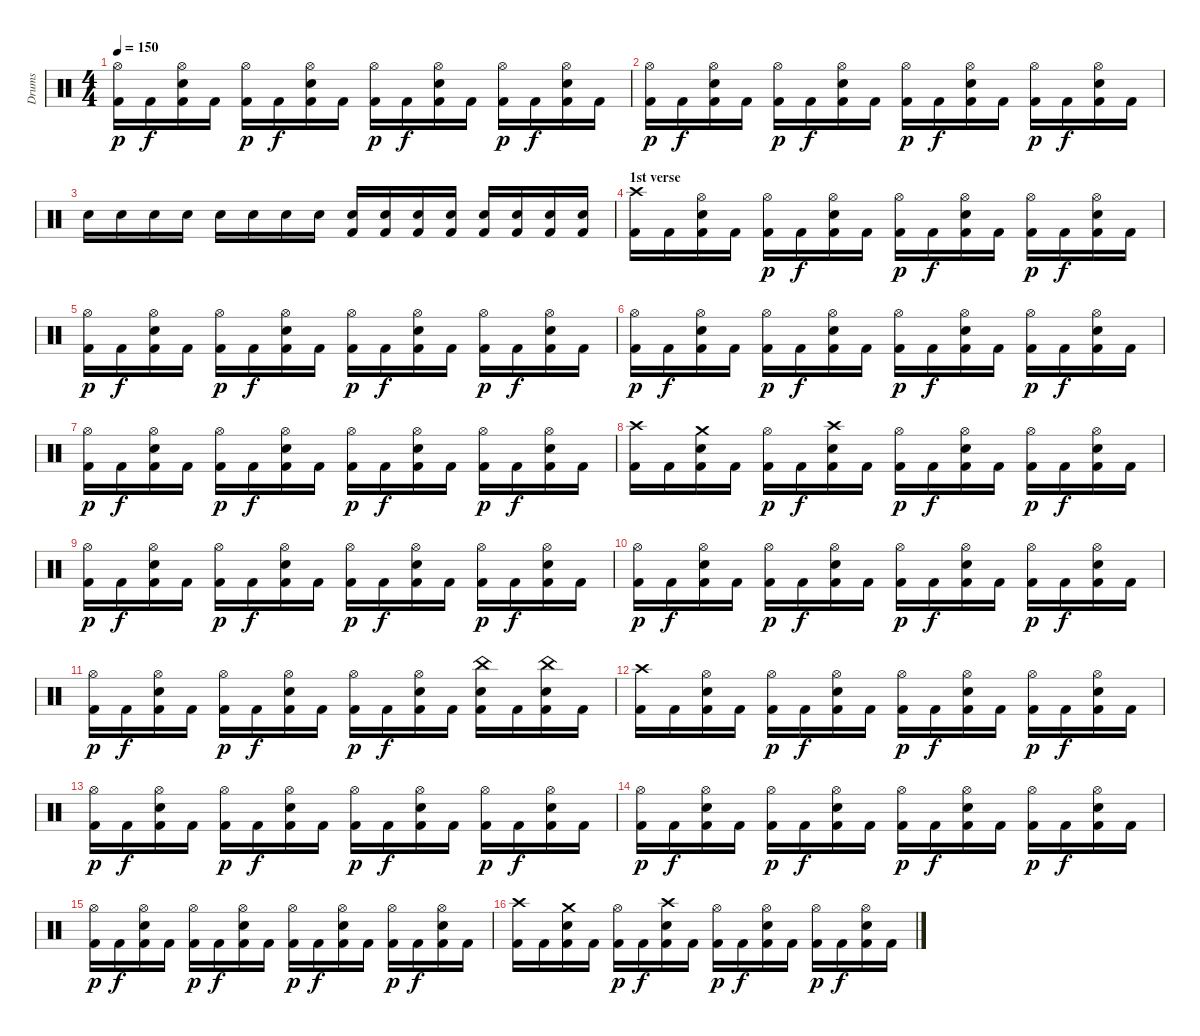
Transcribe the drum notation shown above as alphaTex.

\track ("Drums" "Drums") {instrument percussion}
\staff {score}
\articulation defaults
\ts (4 4)
\tempo 150
\clef neutral
\ks c
("Hi-Hat (open)" "Kick (hit) 2").16{dy p} "Kick (hit) 2".16{dy f} ("Hi-Hat (open)" "Snare (hit) 2" "Kick (hit) 2").16 "Kick (hit) 2".16 ("Hi-Hat (open)" "Kick (hit) 2").16{dy p} "Kick (hit) 2".16{dy f} ("Hi-Hat (open)" "Snare (hit) 2" "Kick (hit) 2").16 "Kick (hit) 2".16 ("Hi-Hat (open)" "Kick (hit) 2").16{dy p} "Kick (hit) 2".16{dy f} ("Hi-Hat (open)" "Snare (hit) 2" "Kick (hit) 2").16 "Kick (hit) 2".16 ("Hi-Hat (open)" "Kick (hit) 2").16{dy p} "Kick (hit) 2".16{dy f} ("Hi-Hat (open)" "Snare (hit) 2" "Kick (hit) 2").16 "Kick (hit) 2".16 |
("Hi-Hat (open)" "Kick (hit) 2").16{dy p} "Kick (hit) 2".16{dy f} ("Hi-Hat (open)" "Snare (hit) 2" "Kick (hit) 2").16 "Kick (hit) 2".16 ("Hi-Hat (open)" "Kick (hit) 2").16{dy p} "Kick (hit) 2".16{dy f} ("Hi-Hat (open)" "Snare (hit) 2" "Kick (hit) 2").16 "Kick (hit) 2".16 ("Hi-Hat (open)" "Kick (hit) 2").16{dy p} "Kick (hit) 2".16{dy f} ("Hi-Hat (open)" "Snare (hit) 2" "Kick (hit) 2").16 "Kick (hit) 2".16 ("Hi-Hat (open)" "Kick (hit) 2").16{dy p} "Kick (hit) 2".16{dy f} ("Hi-Hat (open)" "Snare (hit) 2" "Kick (hit) 2").16 "Kick (hit) 2".16 |
"Snare (hit) 2".16 "Snare (hit) 2".16 "Snare (hit) 2".16 "Snare (hit) 2".16 "Snare (hit) 2".16 "Snare (hit) 2".16 "Snare (hit) 2".16 "Snare (hit) 2".16 ("Snare (hit) 2" "Kick (hit) 2").16 ("Snare (hit) 2" "Kick (hit) 2").16 ("Snare (hit) 2" "Kick (hit) 2").16 ("Snare (hit) 2" "Kick (hit) 2").16 ("Snare (hit) 2" "Kick (hit) 2").16 ("Snare (hit) 2" "Kick (hit) 2").16 ("Snare (hit) 2" "Kick (hit) 2").16 ("Snare (hit) 2" "Kick (hit) 2").16 |
\section ("" "1st verse")
("Crash high (hit)" "Kick (hit) 2").16 "Kick (hit) 2".16 ("Hi-Hat (open)" "Snare (hit) 2" "Kick (hit) 2").16 "Kick (hit) 2".16 ("Hi-Hat (open)" "Kick (hit) 2").16{dy p} "Kick (hit) 2".16{dy f} ("Hi-Hat (open)" "Snare (hit) 2" "Kick (hit) 2").16 "Kick (hit) 2".16 ("Hi-Hat (open)" "Kick (hit) 2").16{dy p} "Kick (hit) 2".16{dy f} ("Hi-Hat (open)" "Snare (hit) 2" "Kick (hit) 2").16 "Kick (hit) 2".16 ("Hi-Hat (open)" "Kick (hit) 2").16{dy p} "Kick (hit) 2".16{dy f} ("Hi-Hat (open)" "Snare (hit) 2" "Kick (hit) 2").16 "Kick (hit) 2".16 |
("Hi-Hat (open)" "Kick (hit) 2").16{dy p} "Kick (hit) 2".16{dy f} ("Hi-Hat (open)" "Snare (hit) 2" "Kick (hit) 2").16 "Kick (hit) 2".16 ("Hi-Hat (open)" "Kick (hit) 2").16{dy p} "Kick (hit) 2".16{dy f} ("Hi-Hat (open)" "Snare (hit) 2" "Kick (hit) 2").16 "Kick (hit) 2".16 ("Hi-Hat (open)" "Kick (hit) 2").16{dy p} "Kick (hit) 2".16{dy f} ("Hi-Hat (open)" "Snare (hit) 2" "Kick (hit) 2").16 "Kick (hit) 2".16 ("Hi-Hat (open)" "Kick (hit) 2").16{dy p} "Kick (hit) 2".16{dy f} ("Hi-Hat (open)" "Snare (hit) 2" "Kick (hit) 2").16 "Kick (hit) 2".16 |
("Hi-Hat (open)" "Kick (hit) 2").16{dy p} "Kick (hit) 2".16{dy f} ("Hi-Hat (open)" "Snare (hit) 2" "Kick (hit) 2").16 "Kick (hit) 2".16 ("Hi-Hat (open)" "Kick (hit) 2").16{dy p} "Kick (hit) 2".16{dy f} ("Hi-Hat (open)" "Snare (hit) 2" "Kick (hit) 2").16 "Kick (hit) 2".16 ("Hi-Hat (open)" "Kick (hit) 2").16{dy p} "Kick (hit) 2".16{dy f} ("Hi-Hat (open)" "Snare (hit) 2" "Kick (hit) 2").16 "Kick (hit) 2".16 ("Hi-Hat (open)" "Kick (hit) 2").16{dy p} "Kick (hit) 2".16{dy f} ("Hi-Hat (open)" "Snare (hit) 2" "Kick (hit) 2").16 "Kick (hit) 2".16 |
("Hi-Hat (open)" "Kick (hit) 2").16{dy p} "Kick (hit) 2".16{dy f} ("Hi-Hat (open)" "Snare (hit) 2" "Kick (hit) 2").16 "Kick (hit) 2".16 ("Hi-Hat (open)" "Kick (hit) 2").16{dy p} "Kick (hit) 2".16{dy f} ("Hi-Hat (open)" "Snare (hit) 2" "Kick (hit) 2").16 "Kick (hit) 2".16 ("Hi-Hat (open)" "Kick (hit) 2").16{dy p} "Kick (hit) 2".16{dy f} ("Hi-Hat (open)" "Snare (hit) 2" "Kick (hit) 2").16 "Kick (hit) 2".16 ("Hi-Hat (open)" "Kick (hit) 2").16{dy p} "Kick (hit) 2".16{dy f} ("Hi-Hat (open)" "Snare (hit) 2" "Kick (hit) 2").16 "Kick (hit) 2".16 |
("Crash high (hit)" "Kick (hit) 2").16 "Kick (hit) 2".16 ("Crash medium (hit)" "Snare (hit) 2" "Kick (hit) 2").16 "Kick (hit) 2".16 ("Hi-Hat (open)" "Kick (hit) 2").16{dy p} "Kick (hit) 2".16{dy f} ("Crash high (hit)" "Snare (hit) 2" "Kick (hit) 2").16 "Kick (hit) 2".16 ("Hi-Hat (open)" "Kick (hit) 2").16{dy p} "Kick (hit) 2".16{dy f} ("Hi-Hat (open)" "Snare (hit) 2" "Kick (hit) 2").16 "Kick (hit) 2".16 ("Hi-Hat (open)" "Kick (hit) 2").16{dy p} "Kick (hit) 2".16{dy f} ("Hi-Hat (open)" "Snare (hit) 2" "Kick (hit) 2").16 "Kick (hit) 2".16 |
("Hi-Hat (open)" "Kick (hit) 2").16{dy p} "Kick (hit) 2".16{dy f} ("Hi-Hat (open)" "Snare (hit) 2" "Kick (hit) 2").16 "Kick (hit) 2".16 ("Hi-Hat (open)" "Kick (hit) 2").16{dy p} "Kick (hit) 2".16{dy f} ("Hi-Hat (open)" "Snare (hit) 2" "Kick (hit) 2").16 "Kick (hit) 2".16 ("Hi-Hat (open)" "Kick (hit) 2").16{dy p} "Kick (hit) 2".16{dy f} ("Hi-Hat (open)" "Snare (hit) 2" "Kick (hit) 2").16 "Kick (hit) 2".16 ("Hi-Hat (open)" "Kick (hit) 2").16{dy p} "Kick (hit) 2".16{dy f} ("Hi-Hat (open)" "Snare (hit) 2" "Kick (hit) 2").16 "Kick (hit) 2".16 |
("Hi-Hat (open)" "Kick (hit) 2").16{dy p} "Kick (hit) 2".16{dy f} ("Hi-Hat (open)" "Snare (hit) 2" "Kick (hit) 2").16 "Kick (hit) 2".16 ("Hi-Hat (open)" "Kick (hit) 2").16{dy p} "Kick (hit) 2".16{dy f} ("Hi-Hat (open)" "Snare (hit) 2" "Kick (hit) 2").16 "Kick (hit) 2".16 ("Hi-Hat (open)" "Kick (hit) 2").16{dy p} "Kick (hit) 2".16{dy f} ("Hi-Hat (open)" "Snare (hit) 2" "Kick (hit) 2").16 "Kick (hit) 2".16 ("Hi-Hat (open)" "Kick (hit) 2").16{dy p} "Kick (hit) 2".16{dy f} ("Hi-Hat (open)" "Snare (hit) 2" "Kick (hit) 2").16 "Kick (hit) 2".16 |
("Hi-Hat (open)" "Kick (hit) 2").16{dy p} "Kick (hit) 2".16{dy f} ("Hi-Hat (open)" "Snare (hit) 2" "Kick (hit) 2").16 "Kick (hit) 2".16 ("Hi-Hat (open)" "Kick (hit) 2").16{dy p} "Kick (hit) 2".16{dy f} ("Hi-Hat (open)" "Snare (hit) 2" "Kick (hit) 2").16 "Kick (hit) 2".16 ("Hi-Hat (open)" "Kick (hit) 2").16{dy p} "Kick (hit) 2".16{dy f} ("Hi-Hat (open)" "Snare (hit) 2" "Kick (hit) 2").16 "Kick (hit) 2".16 ("China (hit)" "Snare (hit) 2" "Kick (hit) 2").16 "Kick (hit) 2".16 ("China (hit)" "Snare (hit) 2" "Kick (hit) 2").16 "Kick (hit) 2".16 |
("Crash high (hit)" "Kick (hit) 2").16 "Kick (hit) 2".16 ("Hi-Hat (open)" "Snare (hit) 2" "Kick (hit) 2").16 "Kick (hit) 2".16 ("Hi-Hat (open)" "Kick (hit) 2").16{dy p} "Kick (hit) 2".16{dy f} ("Hi-Hat (open)" "Snare (hit) 2" "Kick (hit) 2").16 "Kick (hit) 2".16 ("Hi-Hat (open)" "Kick (hit) 2").16{dy p} "Kick (hit) 2".16{dy f} ("Hi-Hat (open)" "Snare (hit) 2" "Kick (hit) 2").16 "Kick (hit) 2".16 ("Hi-Hat (open)" "Kick (hit) 2").16{dy p} "Kick (hit) 2".16{dy f} ("Hi-Hat (open)" "Snare (hit) 2" "Kick (hit) 2").16 "Kick (hit) 2".16 |
("Hi-Hat (open)" "Kick (hit) 2").16{dy p} "Kick (hit) 2".16{dy f} ("Hi-Hat (open)" "Snare (hit) 2" "Kick (hit) 2").16 "Kick (hit) 2".16 ("Hi-Hat (open)" "Kick (hit) 2").16{dy p} "Kick (hit) 2".16{dy f} ("Hi-Hat (open)" "Snare (hit) 2" "Kick (hit) 2").16 "Kick (hit) 2".16 ("Hi-Hat (open)" "Kick (hit) 2").16{dy p} "Kick (hit) 2".16{dy f} ("Hi-Hat (open)" "Snare (hit) 2" "Kick (hit) 2").16 "Kick (hit) 2".16 ("Hi-Hat (open)" "Kick (hit) 2").16{dy p} "Kick (hit) 2".16{dy f} ("Hi-Hat (open)" "Snare (hit) 2" "Kick (hit) 2").16 "Kick (hit) 2".16 |
("Hi-Hat (open)" "Kick (hit) 2").16{dy p} "Kick (hit) 2".16{dy f} ("Hi-Hat (open)" "Snare (hit) 2" "Kick (hit) 2").16 "Kick (hit) 2".16 ("Hi-Hat (open)" "Kick (hit) 2").16{dy p} "Kick (hit) 2".16{dy f} ("Hi-Hat (open)" "Snare (hit) 2" "Kick (hit) 2").16 "Kick (hit) 2".16 ("Hi-Hat (open)" "Kick (hit) 2").16{dy p} "Kick (hit) 2".16{dy f} ("Hi-Hat (open)" "Snare (hit) 2" "Kick (hit) 2").16 "Kick (hit) 2".16 ("Hi-Hat (open)" "Kick (hit) 2").16{dy p} "Kick (hit) 2".16{dy f} ("Hi-Hat (open)" "Snare (hit) 2" "Kick (hit) 2").16 "Kick (hit) 2".16 |
("Hi-Hat (open)" "Kick (hit) 2").16{dy p} "Kick (hit) 2".16{dy f} ("Hi-Hat (open)" "Snare (hit) 2" "Kick (hit) 2").16 "Kick (hit) 2".16 ("Hi-Hat (open)" "Kick (hit) 2").16{dy p} "Kick (hit) 2".16{dy f} ("Hi-Hat (open)" "Snare (hit) 2" "Kick (hit) 2").16 "Kick (hit) 2".16 ("Hi-Hat (open)" "Kick (hit) 2").16{dy p} "Kick (hit) 2".16{dy f} ("Hi-Hat (open)" "Snare (hit) 2" "Kick (hit) 2").16 "Kick (hit) 2".16 ("Hi-Hat (open)" "Kick (hit) 2").16{dy p} "Kick (hit) 2".16{dy f} ("Hi-Hat (open)" "Snare (hit) 2" "Kick (hit) 2").16 "Kick (hit) 2".16 |
("Crash high (hit)" "Kick (hit) 2").16 "Kick (hit) 2".16 ("Crash medium (hit)" "Snare (hit) 2" "Kick (hit) 2").16 "Kick (hit) 2".16 ("Hi-Hat (open)" "Kick (hit) 2").16{dy p} "Kick (hit) 2".16{dy f} ("Crash high (hit)" "Snare (hit) 2" "Kick (hit) 2").16 "Kick (hit) 2".16 ("Hi-Hat (open)" "Kick (hit) 2").16{dy p} "Kick (hit) 2".16{dy f} ("Hi-Hat (open)" "Snare (hit) 2" "Kick (hit) 2").16 "Kick (hit) 2".16 ("Hi-Hat (open)" "Kick (hit) 2").16{dy p} "Kick (hit) 2".16{dy f} ("Hi-Hat (open)" "Snare (hit) 2" "Kick (hit) 2").16 "Kick (hit) 2".16
